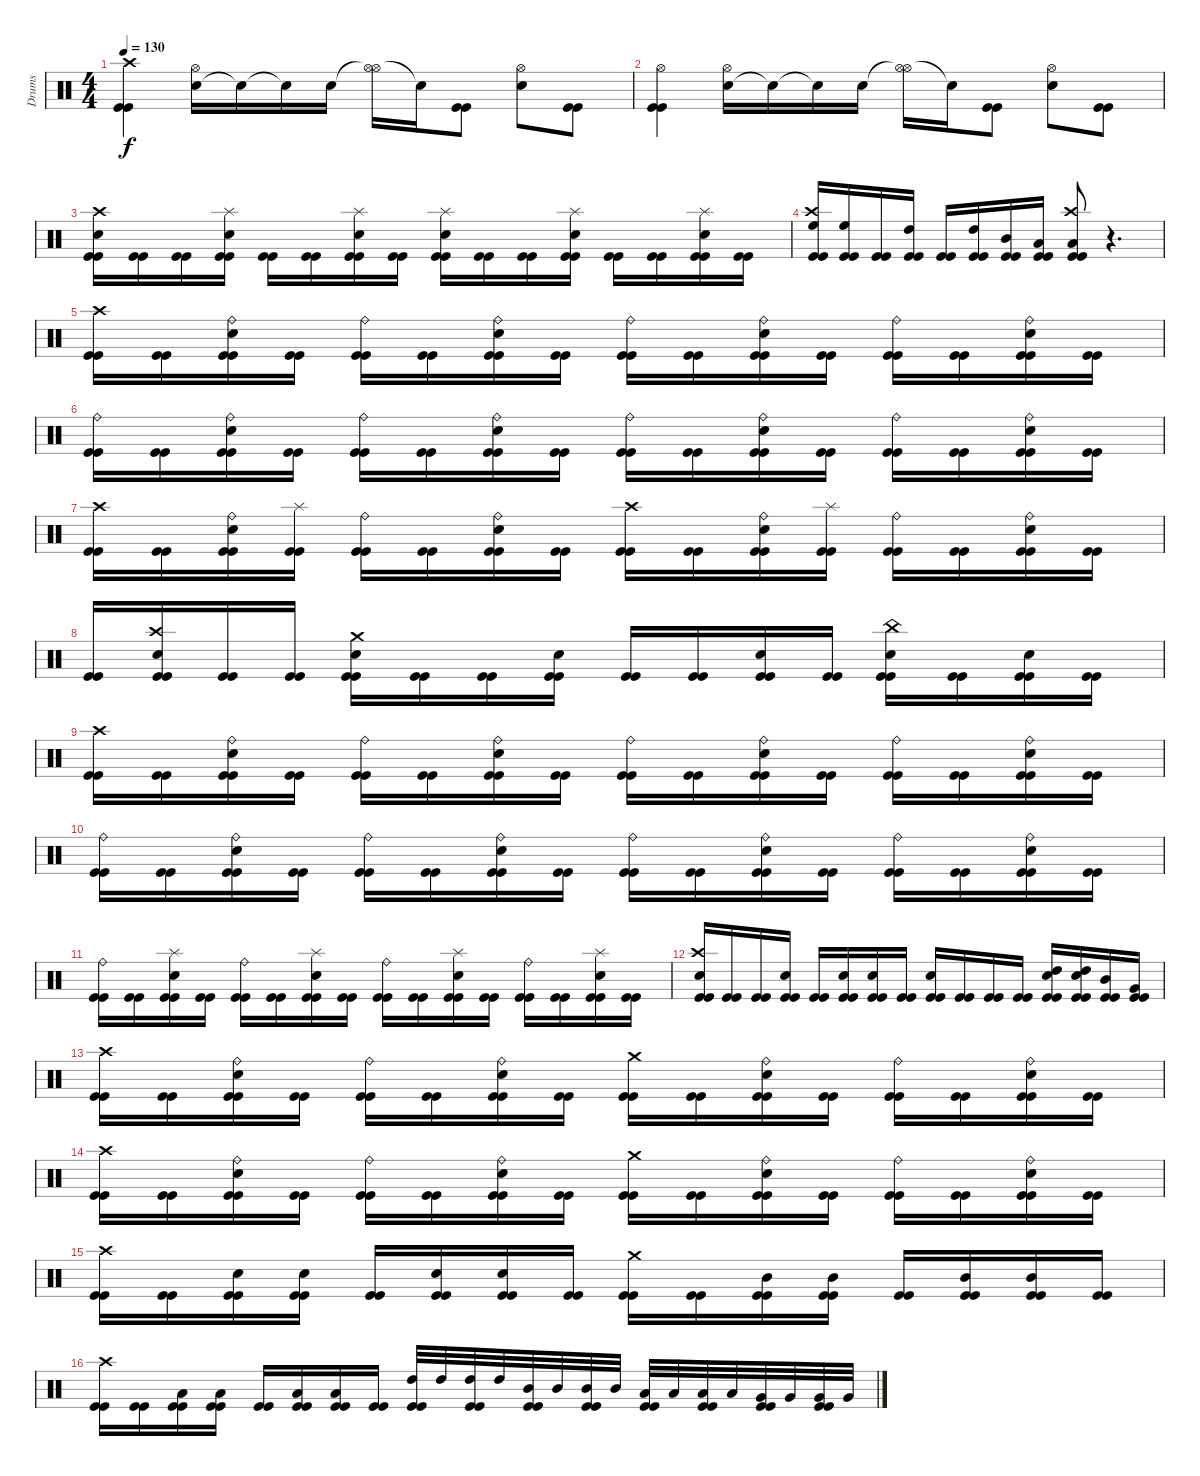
\track ("Drums" "Drums") {instrument percussion}
\staff {score}
\articulation defaults
\ts (4 4)
\tempo 130
\clef neutral
\ks c
("Kick (hit)" "Kick (hit)" "Crash high (hit)").4{dy f} ("Snare (hit) 2" "Hi-Hat (open)").16 "Snare (hit)"{t}.16 "Snare (hit)"{t}.16 "Snare (hit) 2".16 ("Hi-Hat (open)"{t} "Hi-Hat (open)").16 "Snare (hit)"{t}.16 ("Kick (hit)" "Kick (hit)").8 ("Snare (hit) 2" "Hi-Hat (open)").8 ("Kick (hit)" "Kick (hit)").8 |
("Kick (hit)" "Kick (hit)" "Hi-Hat (open)").4 ("Snare (hit) 2" "Hi-Hat (open)").16 "Snare (hit)"{t}.16 "Snare (hit)"{t}.16 "Snare (hit) 2".16 ("Hi-Hat (open)"{t} "Hi-Hat (open)").16 "Snare (hit)"{t}.16 ("Kick (hit)" "Kick (hit)").8 ("Snare (hit) 2" "Hi-Hat (open)").8 ("Kick (hit)" "Kick (hit)").8 |
("Kick (hit)" "Kick (hit)" "Snare (hit) 2" "Crash high (hit)").16 ("Kick (hit)" "Kick (hit)").16 ("Kick (hit)" "Kick (hit)").16 ("Kick (hit)" "Kick (hit)" "Snare (hit) 2" "Splash (hit)").16 ("Kick (hit)" "Kick (hit)").16 ("Kick (hit)" "Kick (hit)").16 ("Kick (hit)" "Kick (hit)" "Snare (hit) 2" "Splash (hit)").16 ("Kick (hit)" "Kick (hit)").16 ("Kick (hit)" "Kick (hit)" "Snare (hit) 2" "Splash (hit)").16 ("Kick (hit)" "Kick (hit)").16 ("Kick (hit)" "Kick (hit)").16 ("Kick (hit)" "Kick (hit)" "Snare (hit) 2" "Splash (hit)").16 ("Kick (hit)" "Kick (hit)").16 ("Kick (hit)" "Kick (hit)").16 ("Kick (hit)" "Kick (hit)" "Snare (hit) 2" "Splash (hit)").16 ("Kick (hit)" "Kick (hit)").16 |
("Kick (hit)" "Kick (hit)" "High Floor Tom (hit)" "Crash high (hit)").16 ("Kick (hit)" "Kick (hit)" "High Floor Tom (hit)").16 ("Kick (hit)" "Kick (hit)").16 ("Kick (hit)" "Kick (hit)" "High Tom (hit)").16 ("Kick (hit)" "Kick (hit)").16 ("Kick (hit)" "Kick (hit)" "High Tom (hit)").16 ("Kick (hit)" "Kick (hit)" "Mid Tom (hit)").16 ("Kick (hit)" "Kick (hit)" "Low Tom (hit)").16 ("Kick (hit)" "Kick (hit)" "Low Floor Tom (hit)" "Crash high (hit)").8 r.4{d} |
("Kick (hit)" "Kick (hit)" "Crash high (hit)").16 ("Kick (hit)" "Kick (hit)").16 ("Kick (hit)" "Kick (hit)" "Snare (hit) 2" "Ride (bell)").16 ("Kick (hit)" "Kick (hit)").16 ("Kick (hit)" "Kick (hit)" "Ride (bell)").16 ("Kick (hit)" "Kick (hit)").16 ("Kick (hit)" "Kick (hit)" "Snare (hit) 2" "Ride (bell)").16 ("Kick (hit)" "Kick (hit)").16 ("Kick (hit)" "Kick (hit)" "Ride (bell)").16 ("Kick (hit)" "Kick (hit)").16 ("Kick (hit)" "Kick (hit)" "Snare (hit) 2" "Ride (bell)").16 ("Kick (hit)" "Kick (hit)").16 ("Kick (hit)" "Kick (hit)" "Ride (bell)").16 ("Kick (hit)" "Kick (hit)").16 ("Kick (hit)" "Kick (hit)" "Snare (hit) 2" "Ride (bell)").16 ("Kick (hit)" "Kick (hit)").16 |
("Kick (hit)" "Kick (hit)" "Ride (bell)").16 ("Kick (hit)" "Kick (hit)").16 ("Kick (hit)" "Kick (hit)" "Snare (hit) 2" "Ride (bell)").16 ("Kick (hit)" "Kick (hit)").16 ("Kick (hit)" "Kick (hit)" "Ride (bell)").16 ("Kick (hit)" "Kick (hit)").16 ("Kick (hit)" "Kick (hit)" "Snare (hit) 2" "Ride (bell)").16 ("Kick (hit)" "Kick (hit)").16 ("Kick (hit)" "Kick (hit)" "Ride (bell)").16 ("Kick (hit)" "Kick (hit)").16 ("Kick (hit)" "Kick (hit)" "Snare (hit) 2" "Ride (bell)").16 ("Kick (hit)" "Kick (hit)").16 ("Kick (hit)" "Kick (hit)" "Ride (bell)").16 ("Kick (hit)" "Kick (hit)").16 ("Kick (hit)" "Kick (hit)" "Snare (hit) 2" "Ride (bell)").16 ("Kick (hit)" "Kick (hit)").16 |
("Kick (hit)" "Kick (hit)" "Crash high (hit)").16 ("Kick (hit)" "Kick (hit)").16 ("Kick (hit)" "Kick (hit)" "Snare (hit) 2" "Ride (bell)").16 ("Kick (hit)" "Kick (hit)" "Splash (hit)").16 ("Kick (hit)" "Kick (hit)" "Ride (bell)").16 ("Kick (hit)" "Kick (hit)").16 ("Kick (hit)" "Kick (hit)" "Snare (hit) 2" "Ride (bell)").16 ("Kick (hit)" "Kick (hit)").16 ("Kick (hit)" "Kick (hit)" "Crash high (hit)").16 ("Kick (hit)" "Kick (hit)").16 ("Kick (hit)" "Kick (hit)" "Snare (hit) 2" "Ride (bell)").16 ("Kick (hit)" "Kick (hit)" "Splash (hit)").16 ("Kick (hit)" "Kick (hit)" "Ride (bell)").16 ("Kick (hit)" "Kick (hit)").16 ("Kick (hit)" "Kick (hit)" "Snare (hit) 2" "Ride (bell)").16 ("Kick (hit)" "Kick (hit)").16 |
("Kick (hit)" "Kick (hit)").16 ("Kick (hit)" "Kick (hit)" "Snare (hit) 2" "Crash high (hit)").16 ("Kick (hit)" "Kick (hit)").16 ("Kick (hit)" "Kick (hit)").16 ("Kick (hit)" "Kick (hit)" "Snare (hit) 2" "Crash medium (hit)").16 ("Kick (hit)" "Kick (hit)").16 ("Kick (hit)" "Kick (hit)").16 ("Kick (hit)" "Kick (hit)" "Snare (hit) 2").16 ("Kick (hit)" "Kick (hit)").16 ("Kick (hit)" "Kick (hit)").16 ("Kick (hit)" "Kick (hit)" "Snare (hit) 2").16 ("Kick (hit)" "Kick (hit)").16 ("Kick (hit)" "Kick (hit)" "Snare (hit) 2" "China (hit)").16 ("Kick (hit)" "Kick (hit)").16 ("Kick (hit)" "Kick (hit)" "Snare (hit) 2").16 ("Kick (hit)" "Kick (hit)").16 |
("Kick (hit)" "Kick (hit)" "Crash high (hit)").16 ("Kick (hit)" "Kick (hit)").16 ("Kick (hit)" "Kick (hit)" "Snare (hit) 2" "Ride (bell)").16 ("Kick (hit)" "Kick (hit)").16 ("Kick (hit)" "Kick (hit)" "Ride (bell)").16 ("Kick (hit)" "Kick (hit)").16 ("Kick (hit)" "Kick (hit)" "Snare (hit) 2" "Ride (bell)").16 ("Kick (hit)" "Kick (hit)").16 ("Kick (hit)" "Kick (hit)" "Ride (bell)").16 ("Kick (hit)" "Kick (hit)").16 ("Kick (hit)" "Kick (hit)" "Snare (hit) 2" "Ride (bell)").16 ("Kick (hit)" "Kick (hit)").16 ("Kick (hit)" "Kick (hit)" "Ride (bell)").16 ("Kick (hit)" "Kick (hit)").16 ("Kick (hit)" "Kick (hit)" "Snare (hit) 2" "Ride (bell)").16 ("Kick (hit)" "Kick (hit)").16 |
("Kick (hit)" "Kick (hit)" "Ride (bell)").16 ("Kick (hit)" "Kick (hit)").16 ("Kick (hit)" "Kick (hit)" "Snare (hit) 2" "Ride (bell)").16 ("Kick (hit)" "Kick (hit)").16 ("Kick (hit)" "Kick (hit)" "Ride (bell)").16 ("Kick (hit)" "Kick (hit)").16 ("Kick (hit)" "Kick (hit)" "Snare (hit) 2" "Ride (bell)").16 ("Kick (hit)" "Kick (hit)").16 ("Kick (hit)" "Kick (hit)" "Ride (bell)").16 ("Kick (hit)" "Kick (hit)").16 ("Kick (hit)" "Kick (hit)" "Snare (hit) 2" "Ride (bell)").16 ("Kick (hit)" "Kick (hit)").16 ("Kick (hit)" "Kick (hit)" "Ride (bell)").16 ("Kick (hit)" "Kick (hit)").16 ("Kick (hit)" "Kick (hit)" "Snare (hit) 2" "Ride (bell)").16 ("Kick (hit)" "Kick (hit)").16 |
("Kick (hit)" "Kick (hit)" "Ride (bell)").16 ("Kick (hit)" "Kick (hit)").16 ("Kick (hit)" "Kick (hit)" "Snare (hit) 2" "Splash (hit)").16 ("Kick (hit)" "Kick (hit)").16 ("Kick (hit)" "Kick (hit)" "Ride (bell)").16 ("Kick (hit)" "Kick (hit)").16 ("Kick (hit)" "Kick (hit)" "Snare (hit) 2" "Splash (hit)").16 ("Kick (hit)" "Kick (hit)").16 ("Kick (hit)" "Kick (hit)" "Ride (bell)").16 ("Kick (hit)" "Kick (hit)").16 ("Kick (hit)" "Kick (hit)" "Snare (hit) 2" "Splash (hit)").16 ("Kick (hit)" "Kick (hit)").16 ("Kick (hit)" "Kick (hit)" "Ride (bell)").16 ("Kick (hit)" "Kick (hit)").16 ("Kick (hit)" "Kick (hit)" "Snare (hit) 2" "Splash (hit)").16 ("Kick (hit)" "Kick (hit)").16 |
("Kick (hit)" "Kick (hit)" "Snare (hit) 2" "Crash high (hit)").16 ("Kick (hit)" "Kick (hit)").16 ("Kick (hit)" "Kick (hit)").16 ("Kick (hit)" "Kick (hit)" "Snare (hit) 2").16 ("Kick (hit)" "Kick (hit)").16 ("Kick (hit)" "Kick (hit)" "Snare (hit) 2").16 ("Kick (hit)" "Kick (hit)" "Snare (hit) 2").16 ("Kick (hit)" "Kick (hit)").16 ("Kick (hit)" "Kick (hit)" "Snare (hit) 2").16 ("Kick (hit)" "Kick (hit)").16 ("Kick (hit)" "Kick (hit)").16 ("Kick (hit)" "Kick (hit)").16 ("Kick (hit)" "Kick (hit)" "High Tom (hit)" "Snare (hit) 2").16 ("Kick (hit)" "Kick (hit)" "High Tom (hit)" "Snare (hit) 2").16 ("Kick (hit)" "Kick (hit)" "Mid Tom (hit)").16 ("Kick (hit)" "Kick (hit)" "Very Low Tom (hit)").16 |
("Kick (hit)" "Kick (hit)" "Crash high (hit)").16 ("Kick (hit)" "Kick (hit)").16 ("Kick (hit)" "Kick (hit)" "Snare (hit) 2" "Ride (bell)").16 ("Kick (hit)" "Kick (hit)").16 ("Kick (hit)" "Kick (hit)" "Ride (bell)").16 ("Kick (hit)" "Kick (hit)").16 ("Kick (hit)" "Kick (hit)" "Snare (hit) 2" "Ride (bell)").16 ("Kick (hit)" "Kick (hit)").16 ("Kick (hit)" "Kick (hit)" "Crash medium (hit)").16 ("Kick (hit)" "Kick (hit)").16 ("Kick (hit)" "Kick (hit)" "Snare (hit) 2" "Ride (bell)").16 ("Kick (hit)" "Kick (hit)").16 ("Kick (hit)" "Kick (hit)" "Ride (bell)").16 ("Kick (hit)" "Kick (hit)").16 ("Kick (hit)" "Kick (hit)" "Snare (hit) 2" "Ride (bell)").16 ("Kick (hit)" "Kick (hit)").16 |
("Kick (hit)" "Kick (hit)" "Crash high (hit)").16 ("Kick (hit)" "Kick (hit)").16 ("Kick (hit)" "Kick (hit)" "Snare (hit) 2" "Ride (bell)").16 ("Kick (hit)" "Kick (hit)").16 ("Kick (hit)" "Kick (hit)" "Ride (bell)").16 ("Kick (hit)" "Kick (hit)").16 ("Kick (hit)" "Kick (hit)" "Snare (hit) 2" "Ride (bell)").16 ("Kick (hit)" "Kick (hit)").16 ("Kick (hit)" "Kick (hit)" "Crash medium (hit)").16 ("Kick (hit)" "Kick (hit)").16 ("Kick (hit)" "Kick (hit)" "Snare (hit) 2" "Ride (bell)").16 ("Kick (hit)" "Kick (hit)").16 ("Kick (hit)" "Kick (hit)" "Ride (bell)").16 ("Kick (hit)" "Kick (hit)").16 ("Kick (hit)" "Kick (hit)" "Snare (hit) 2" "Ride (bell)").16 ("Kick (hit)" "Kick (hit)").16 |
("Kick (hit)" "Kick (hit)" "Crash high (hit)").16 ("Kick (hit)" "Kick (hit)").16 ("Kick (hit)" "Kick (hit)" "Snare (hit) 2").16 ("Kick (hit)" "Kick (hit)" "Snare (hit) 2").16 ("Kick (hit)" "Kick (hit)").16 ("Kick (hit)" "Kick (hit)" "Snare (hit) 2").16 ("Kick (hit)" "Kick (hit)" "Snare (hit) 2").16 ("Kick (hit)" "Kick (hit)").16 ("Kick (hit)" "Kick (hit)" "Crash medium (hit)").16 ("Kick (hit)" "Kick (hit)").16 ("Kick (hit)" "Kick (hit)" "Mid Tom (hit)").16 ("Kick (hit)" "Kick (hit)" "Mid Tom (hit)").16 ("Kick (hit)" "Kick (hit)").16 ("Kick (hit)" "Kick (hit)" "Mid Tom (hit)").16 ("Kick (hit)" "Kick (hit)" "Mid Tom (hit)").16 ("Kick (hit)" "Kick (hit)").16 |
("Kick (hit)" "Kick (hit)" "Crash high (hit)").16 ("Kick (hit)" "Kick (hit)").16 ("Kick (hit)" "Kick (hit)" "Low Tom (hit)").16 ("Kick (hit)" "Kick (hit)" "Low Tom (hit)").16 ("Kick (hit)" "Kick (hit)").16 ("Kick (hit)" "Kick (hit)" "Low Tom (hit)").16 ("Kick (hit)" "Kick (hit)" "Low Tom (hit)").16 ("Kick (hit)" "Kick (hit)").16 ("Kick (hit)" "Kick (hit)" "High Tom (hit)").32 "High Tom (hit)".32 ("Kick (hit)" "Kick (hit)" "High Tom (hit)").32 "High Tom (hit)".32 ("Kick (hit)" "Kick (hit)" "Mid Tom (hit)").32 "Mid Tom (hit)".32 ("Kick (hit)" "Kick (hit)" "Mid Tom (hit)").32 "Mid Tom (hit)".32 ("Kick (hit)" "Kick (hit)" "Low Tom (hit)").32 "Low Tom (hit)".32 ("Kick (hit)" "Kick (hit)" "Low Tom (hit)").32 "Low Tom (hit)".32 ("Kick (hit)" "Kick (hit)" "Very Low Tom (hit)").32 "Very Low Tom (hit)".32 ("Kick (hit)" "Kick (hit)" "Very Low Tom (hit)").32 "Very Low Tom (hit)".32
